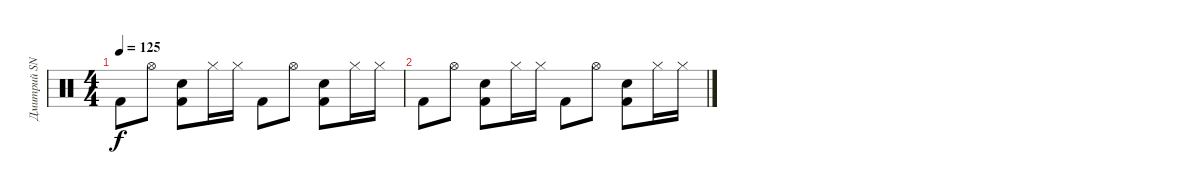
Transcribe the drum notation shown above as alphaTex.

\track ("Дмитрий SNAKE Хакимов" "Дмитрий SN") {instrument percussion}
\staff {score}
\articulation defaults
\ts (4 4)
\tempo 125
\clef neutral
\ks c "Kick (hit) 2".8{dy f} "Hi-Hat (open)".8
("Snare (hit) 2" "Kick (hit) 2").8 "Hi-Hat (closed)".16 "Hi-Hat (closed)".16 "Kick (hit) 2".8 "Hi-Hat (open)".8 ("Snare (hit) 2" "Kick (hit) 2").8 "Hi-Hat (closed)".16 "Hi-Hat (closed)".16 |
"Kick (hit) 2".8 "Hi-Hat (open)".8 ("Snare (hit) 2" "Kick (hit) 2").8 "Hi-Hat (closed)".16 "Hi-Hat (closed)".16 "Kick (hit) 2".8 "Hi-Hat (open)".8 ("Snare (hit) 2" "Kick (hit) 2").8 "Hi-Hat (closed)".16 "Hi-Hat (closed)".16
